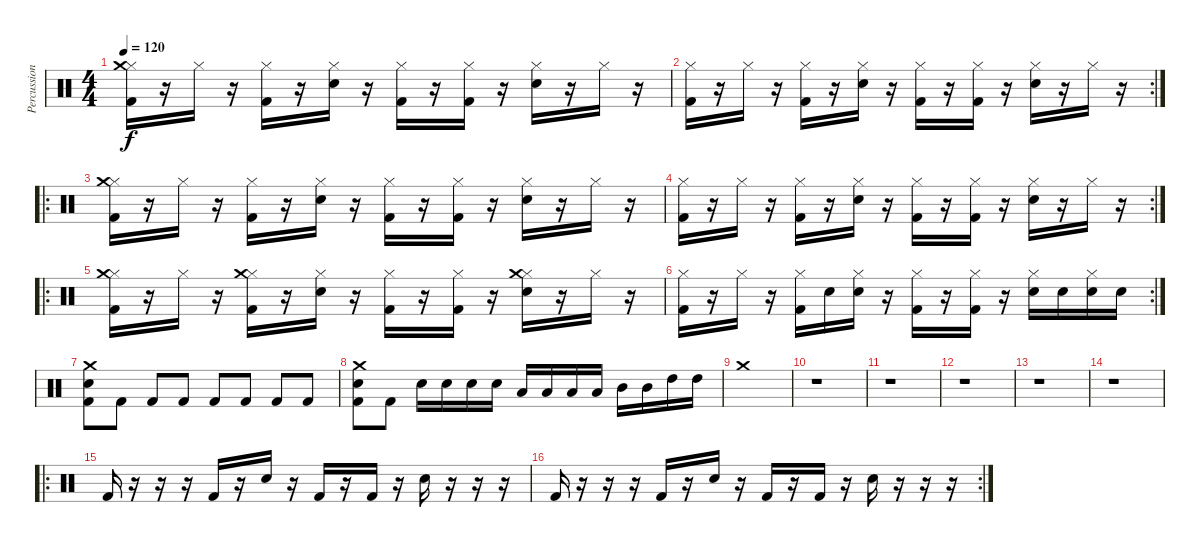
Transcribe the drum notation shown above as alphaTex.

\track ("Percussion" "Percussion") {instrument percussion}
\staff {score}
\articulation defaults
\ts (4 4)
\tempo 120
\clef neutral
\ks c
("Hi-Hat (closed)" "Crash medium (hit)" "Kick (hit) 2").16{dy f} r.16 "Hi-Hat (closed)".16 r.16 ("Hi-Hat (closed)" "Kick (hit) 2").16 r.16 ("Hi-Hat (closed)" "Snare (hit) 2").16 r.16 ("Hi-Hat (closed)" "Kick (hit) 2").16 r.16 ("Hi-Hat (closed)" "Kick (hit) 2").16 r.16 ("Hi-Hat (closed)" "Snare (hit) 2").16 r.16 "Hi-Hat (closed)".16 r.16 |
\rc 2
("Hi-Hat (closed)" "Kick (hit) 2").16 r.16 "Hi-Hat (closed)".16 r.16 ("Hi-Hat (closed)" "Kick (hit) 2").16 r.16 ("Hi-Hat (closed)" "Snare (hit) 2").16 r.16 ("Hi-Hat (closed)" "Kick (hit) 2").16 r.16 ("Hi-Hat (closed)" "Kick (hit) 2").16 r.16 ("Hi-Hat (closed)" "Snare (hit) 2").16 r.16 "Hi-Hat (closed)".16 r.16 |
\ro
("Hi-Hat (closed)" "Crash medium (hit)" "Kick (hit) 2").16 r.16 "Hi-Hat (closed)".16 r.16 ("Hi-Hat (closed)" "Kick (hit) 2").16 r.16 ("Hi-Hat (closed)" "Snare (hit) 2").16 r.16 ("Hi-Hat (closed)" "Kick (hit) 2").16 r.16 ("Hi-Hat (closed)" "Kick (hit) 2").16 r.16 ("Hi-Hat (closed)" "Snare (hit) 2").16 r.16 "Hi-Hat (closed)".16 r.16 |
\rc 2
("Hi-Hat (closed)" "Kick (hit) 2").16 r.16 "Hi-Hat (closed)".16 r.16 ("Hi-Hat (closed)" "Kick (hit) 2").16 r.16 ("Hi-Hat (closed)" "Snare (hit) 2").16 r.16 ("Hi-Hat (closed)" "Kick (hit) 2").16 r.16 ("Hi-Hat (closed)" "Kick (hit) 2").16 r.16 ("Hi-Hat (closed)" "Snare (hit) 2").16 r.16 "Hi-Hat (closed)".16 r.16 |
\ro
("Hi-Hat (closed)" "Crash medium (hit)" "Kick (hit) 2").16 r.16 "Hi-Hat (closed)".16 r.16 ("Hi-Hat (closed)" "Crash medium (hit)" "Kick (hit) 2").16 r.16 ("Hi-Hat (closed)" "Electric Snare (hit)").16 r.16 ("Hi-Hat (closed)" "Kick (hit) 2").16 r.16 ("Hi-Hat (closed)" "Kick (hit) 2").16 r.16 ("Hi-Hat (closed)" "Crash medium (hit)" "Electric Snare (hit)").16 r.16 "Hi-Hat (closed)".16 r.16 |
\rc 2
("Hi-Hat (closed)" "Kick (hit) 2").16 r.16 "Hi-Hat (closed)".16 r.16 ("Hi-Hat (closed)" "Kick (hit) 2").16 "Electric Snare (hit)".16 ("Hi-Hat (closed)" "Electric Snare (hit)").16 r.16 ("Hi-Hat (closed)" "Kick (hit) 2").16 r.16 ("Hi-Hat (closed)" "Kick (hit) 2").16 r.16 ("Hi-Hat (closed)" "Electric Snare (hit)").16 "Snare (hit) 2".16 ("Hi-Hat (closed)" "Snare (hit) 2").16 "Electric Snare (hit)".16 |
("Crash medium (hit)" "Electric Snare (hit)" "Kick (hit) 2").8 "Kick (hit) 2".8 "Kick (hit) 2".8 "Kick (hit) 2".8 "Kick (hit) 2".8 "Kick (hit) 2".8 "Kick (hit) 2".8 "Kick (hit) 2".8 |
("Crash medium (hit)" "Electric Snare (hit)" "Kick (hit) 2").8 "Kick (hit) 2".8{volume 16} "Electric Snare (hit)".16 "Electric Snare (hit)".16 "Snare (hit) 2".16 "Snare (hit) 2".16 "Low Tom (hit)".16 "Low Tom (hit)".16 "Low Tom (hit)".16 "Low Tom (hit)".16 "Mid Tom (hit)".16 "Mid Tom (hit)".16 "High Tom (hit)".16 "High Tom (hit)".16 |
"Crash medium (hit)".1 |
r.1 |
r.1 |
r.1 |
r.1 |
r.1 |
\ro "Kick (hit) 2".16{volume 12}
r.16 r.16 r.16 "Kick (hit) 2".16 r.16 "Electric Snare (hit)".16 r.16 "Kick (hit) 2".16 r.16 "Kick (hit) 2".16 r.16 "Electric Snare (hit)".16 r.16 r.16 r.16 |
\rc 2 "Kick (hit) 2".16
r.16 r.16 r.16 "Kick (hit) 2".16 r.16 "Electric Snare (hit)".16 r.16 "Kick (hit) 2".16 r.16 "Kick (hit) 2".16 r.16 "Electric Snare (hit)".16 r.16 r.16 r.16
